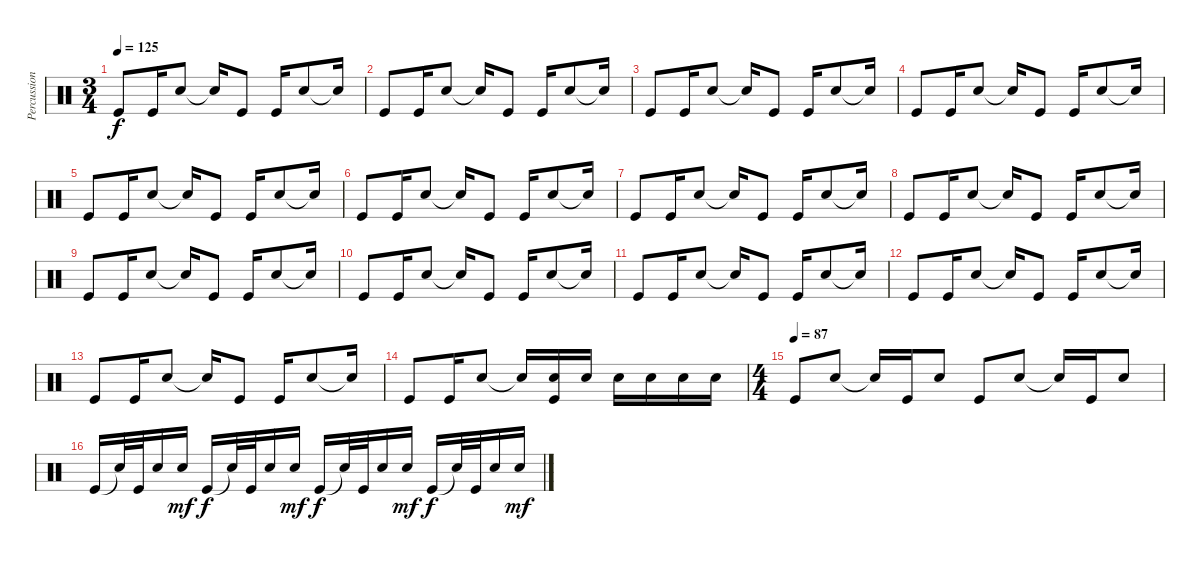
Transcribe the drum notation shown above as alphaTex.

\track ("Percussion" "Percussion") {instrument percussion}
\staff {score}
\articulation defaults
\ts (3 4)
\tempo 125
\clef neutral
\ks c "Kick (hit)".8{dy f} "Kick (hit)".16 "Electric Snare (hit)".8 "Snare (hit)"{t}.16 "Kick (hit)".8 "Kick (hit)".16 "Electric Snare (hit)".8 "Snare (hit)"{t}.16
|
"Kick (hit)".8 "Kick (hit)".16 "Electric Snare (hit)".8 "Snare (hit)"{t}.16 "Kick (hit)".8 "Kick (hit)".16 "Electric Snare (hit)".8 "Snare (hit)"{t}.16 |
"Kick (hit)".8 "Kick (hit)".16 "Electric Snare (hit)".8 "Snare (hit)"{t}.16 "Kick (hit)".8 "Kick (hit)".16 "Electric Snare (hit)".8 "Snare (hit)"{t}.16 |
"Kick (hit)".8 "Kick (hit)".16 "Electric Snare (hit)".8 "Snare (hit)"{t}.16 "Kick (hit)".8 "Kick (hit)".16 "Electric Snare (hit)".8 "Snare (hit)"{t}.16 |
"Kick (hit)".8 "Kick (hit)".16 "Electric Snare (hit)".8 "Snare (hit)"{t}.16 "Kick (hit)".8 "Kick (hit)".16 "Electric Snare (hit)".8 "Snare (hit)"{t}.16 |
"Kick (hit)".8 "Kick (hit)".16 "Electric Snare (hit)".8 "Snare (hit)"{t}.16 "Kick (hit)".8 "Kick (hit)".16 "Electric Snare (hit)".8 "Snare (hit)"{t}.16 |
"Kick (hit)".8 "Kick (hit)".16 "Electric Snare (hit)".8 "Snare (hit)"{t}.16 "Kick (hit)".8 "Kick (hit)".16 "Electric Snare (hit)".8 "Snare (hit)"{t}.16 |
"Kick (hit)".8 "Kick (hit)".16 "Electric Snare (hit)".8 "Snare (hit)"{t}.16 "Kick (hit)".8 "Kick (hit)".16 "Electric Snare (hit)".8 "Snare (hit)"{t}.16 |
"Kick (hit)".8 "Kick (hit)".16 "Electric Snare (hit)".8 "Snare (hit)"{t}.16 "Kick (hit)".8 "Kick (hit)".16 "Electric Snare (hit)".8 "Snare (hit)"{t}.16 |
"Kick (hit)".8 "Kick (hit)".16 "Electric Snare (hit)".8 "Snare (hit)"{t}.16 "Kick (hit)".8 "Kick (hit)".16 "Electric Snare (hit)".8 "Snare (hit)"{t}.16 |
"Kick (hit)".8 "Kick (hit)".16 "Electric Snare (hit)".8 "Snare (hit)"{t}.16 "Kick (hit)".8 "Kick (hit)".16 "Electric Snare (hit)".8 "Snare (hit)"{t}.16 |
"Kick (hit)".8 "Kick (hit)".16 "Electric Snare (hit)".8 "Snare (hit)"{t}.16 "Kick (hit)".8 "Kick (hit)".16 "Electric Snare (hit)".8 "Snare (hit)"{t}.16 |
"Kick (hit)".8 "Kick (hit)".16 "Electric Snare (hit)".8 "Snare (hit)"{t}.16 "Kick (hit)".8 "Kick (hit)".16 "Electric Snare (hit)".8 "Snare (hit)"{t}.16 |
"Kick (hit)".8 "Kick (hit)".16 "Electric Snare (hit)".8 "Snare (hit)"{t}.16 ("Electric Snare (hit)" "Kick (hit)").16 "Electric Snare (hit)".16 "Electric Snare (hit)".16 "Electric Snare (hit)".16 "Electric Snare (hit)".16 "Electric Snare (hit)".16 |
\ts (4 4)
\tempo (87)
"Kick (hit)".8 "Electric Snare (hit)".8 "Snare (hit)"{t}.16 "Kick (hit)".16 "Electric Snare (hit)".8 "Kick (hit)".8 "Electric Snare (hit)".8 "Snare (hit)"{t}.16 "Kick (hit)".16 "Electric Snare (hit)".8 |
"Kick (hit)".16 "Snare (hit)"{t}.32 "Kick (hit)".32 "Electric Snare (hit)".16 "Electric Snare (hit)".16{dy mf} "Kick (hit)".16{dy f} "Snare (hit)"{t}.32 "Kick (hit)".32 "Electric Snare (hit)".16 "Electric Snare (hit)".16{dy mf} "Kick (hit)".16{dy f} "Snare (hit)"{t}.32 "Kick (hit)".32 "Electric Snare (hit)".16 "Electric Snare (hit)".16{dy mf} "Kick (hit)".16{dy f} "Snare (hit)"{t}.32 "Kick (hit)".32 "Electric Snare (hit)".16 "Electric Snare (hit)".16{dy mf}
